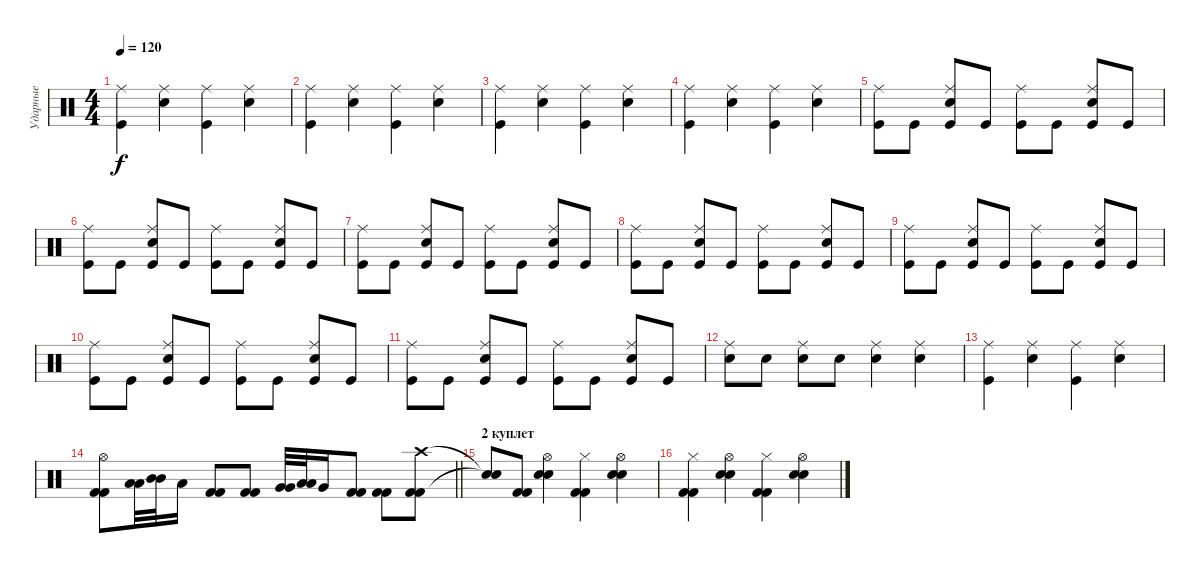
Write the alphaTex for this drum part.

\track ("Ударные" "Ударные") {instrument percussion}
\staff {score}
\articulation defaults
\ts (4 4)
\tempo 120
\clef neutral
\ks c
("Kick (hit)" "Ride (middle)").4{dy f} ("Snare (hit) 2" "Ride (middle)").4 ("Kick (hit)" "Ride (middle)").4 ("Snare (hit) 2" "Ride (middle)").4 |
("Kick (hit)" "Ride (middle)").4 ("Snare (hit) 2" "Ride (middle)").4 ("Kick (hit)" "Ride (middle)").4 ("Snare (hit) 2" "Ride (middle)").4 |
("Kick (hit)" "Ride (middle)").4 ("Snare (hit) 2" "Ride (middle)").4 ("Kick (hit)" "Ride (middle)").4 ("Snare (hit) 2" "Ride (middle)").4 |
("Kick (hit)" "Ride (middle)").4 ("Snare (hit) 2" "Ride (middle)").4 ("Kick (hit)" "Ride (middle)").4 ("Snare (hit) 2" "Ride (middle)").4 |
("Kick (hit)" "Ride (middle)").8 "Kick (hit)".8 ("Kick (hit)" "Snare (hit) 2" "Ride (middle)").8 "Kick (hit)".8 ("Kick (hit)" "Ride (middle)").8 "Kick (hit)".8 ("Kick (hit)" "Snare (hit) 2" "Ride (middle)").8 "Kick (hit)".8 |
("Kick (hit)" "Ride (middle)").8 "Kick (hit)".8 ("Kick (hit)" "Snare (hit) 2" "Ride (middle)").8 "Kick (hit)".8 ("Kick (hit)" "Ride (middle)").8 "Kick (hit)".8 ("Kick (hit)" "Snare (hit) 2" "Ride (middle)").8 "Kick (hit)".8 |
("Kick (hit)" "Ride (middle)").8 "Kick (hit)".8 ("Kick (hit)" "Snare (hit) 2" "Ride (middle)").8 "Kick (hit)".8 ("Kick (hit)" "Ride (middle)").8 "Kick (hit)".8 ("Kick (hit)" "Snare (hit) 2" "Ride (middle)").8 "Kick (hit)".8 |
("Kick (hit)" "Ride (middle)").8 "Kick (hit)".8 ("Kick (hit)" "Snare (hit) 2" "Ride (middle)").8 "Kick (hit)".8 ("Kick (hit)" "Ride (middle)").8 "Kick (hit)".8 ("Kick (hit)" "Snare (hit) 2" "Ride (middle)").8 "Kick (hit)".8 |
("Kick (hit)" "Ride (middle)").8 "Kick (hit)".8 ("Kick (hit)" "Snare (hit) 2" "Ride (middle)").8 "Kick (hit)".8 ("Kick (hit)" "Ride (middle)").8 "Kick (hit)".8 ("Kick (hit)" "Snare (hit) 2" "Ride (middle)").8 "Kick (hit)".8 |
("Kick (hit)" "Ride (middle)").8 "Kick (hit)".8 ("Kick (hit)" "Snare (hit) 2" "Ride (middle)").8 "Kick (hit)".8 ("Kick (hit)" "Ride (middle)").8 "Kick (hit)".8 ("Kick (hit)" "Snare (hit) 2" "Ride (middle)").8 "Kick (hit)".8 |
("Kick (hit)" "Ride (middle)").8 "Kick (hit)".8 ("Kick (hit)" "Snare (hit) 2" "Ride (middle)").8 "Kick (hit)".8 ("Kick (hit)" "Ride (middle)").8 "Kick (hit)".8 ("Kick (hit)" "Snare (hit) 2" "Ride (middle)").8 "Kick (hit)".8 |
("Snare (hit) 2" "Ride (middle)").8 "Snare (hit) 2".8 ("Snare (hit) 2" "Ride (middle)").8 "Snare (hit) 2".8 ("Snare (hit) 2" "Ride (middle)").4 ("Snare (hit) 2" "Ride (middle)").4 |
("Kick (hit)" "Ride (middle)").4 ("Snare (hit) 2" "Ride (middle)").4 ("Kick (hit)" "Ride (middle)").4 ("Snare (hit) 2" "Ride (middle)").4 |
\barLineRight lightlight
("Hi-Hat (open)" "Kick (hit) 2" "Kick (hit) 2").8 ("Low Tom (hit)" "Low Tom (hit)").32 ("Mid Tom (hit)" "Mid Tom (hit)").32 "Low Tom (hit)".16 ("Kick (hit) 2" "Kick (hit) 2").8 ("Kick (hit) 2" "Kick (hit) 2").8 ("Very Low Tom (hit)" "Very Low Tom (hit)").32 ("Low Tom (hit)" "Low Tom (hit)").32 "Very Low Tom (hit)".16 ("Kick (hit) 2" "Kick (hit) 2").8 ("Kick (hit) 2" "Kick (hit) 2").8 ("Crash high (hit)" "Kick (hit) 2" "Kick (hit) 2").8 |
\section ("" "2 куплет")
("Snare (hit)"{t} "Snare (hit)"{t}).8 ("Kick (hit) 2" "Kick (hit) 2").8 ("Hi-Hat (open)" "Electric Snare (hit)" "Electric Snare (hit)").4 ("Hi-Hat (closed)" "Kick (hit) 2" "Kick (hit) 2").4 ("Hi-Hat (open)" "Electric Snare (hit)" "Electric Snare (hit)").4 |
("Hi-Hat (closed)" "Kick (hit) 2" "Kick (hit) 2").4 ("Hi-Hat (open)" "Electric Snare (hit)" "Electric Snare (hit)").4 ("Hi-Hat (closed)" "Kick (hit) 2" "Kick (hit) 2").4 ("Hi-Hat (open)" "Electric Snare (hit)" "Electric Snare (hit)").4
